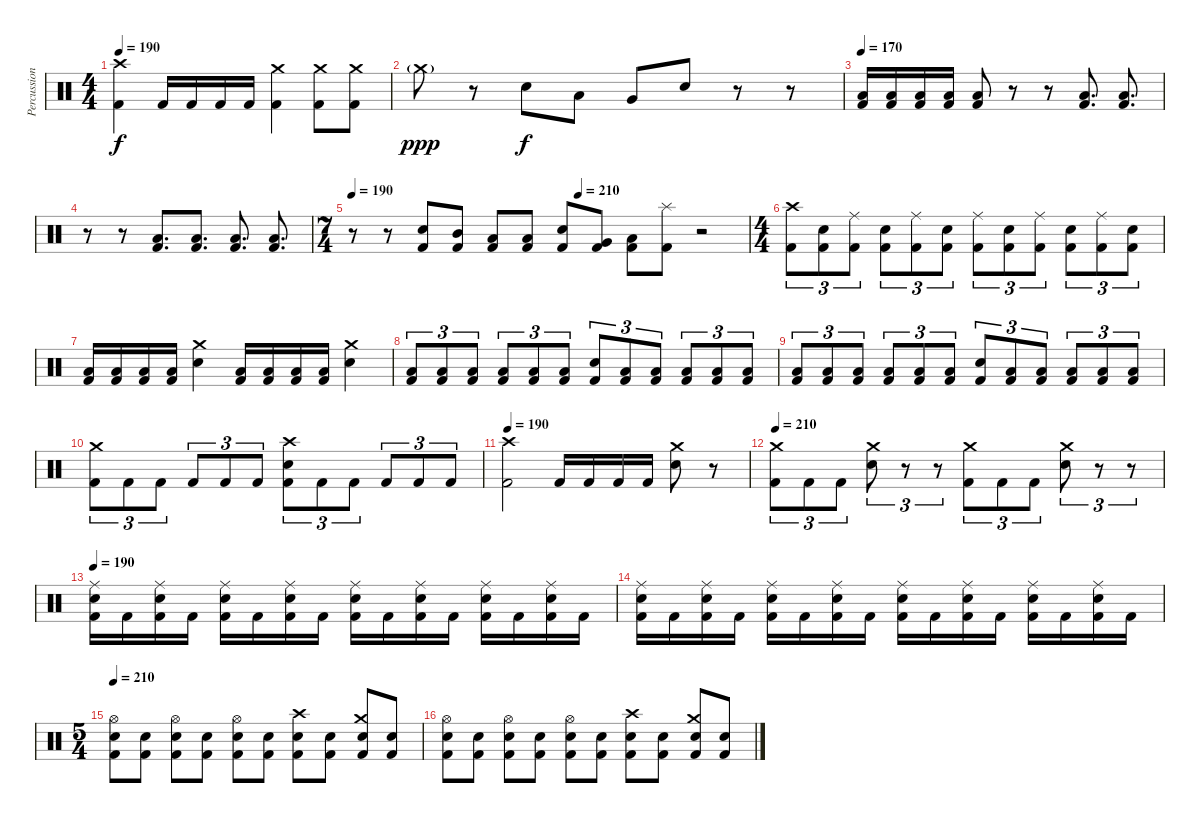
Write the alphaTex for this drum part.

\track ("Percussion" "Percussion") {instrument percussion}
\staff {score}
\articulation defaults
\ts (4 4)
\tempo 190
\clef neutral
\ks c
("Crash high (hit)" "Kick (hit) 2").4{dy f} "Kick (hit) 2".16 "Kick (hit) 2".16 "Kick (hit) 2".16 "Kick (hit) 2".16 ("Crash medium (hit)" "Kick (hit) 2").4 ("Crash medium (hit)" "Kick (hit) 2").8 ("Crash medium (hit)" "Kick (hit) 2").8 |
"Crash medium (hit)"{g}.8{dy ppp} r.8 "Electric Snare (hit)".8{dy f} "Low Tom (hit)".8 "Very Low Tom (hit)".8 "Electric Snare (hit)".8 r.8 r.8 |
\tempo 170
("Low Tom (hit)" "Kick (hit) 2").16 ("Low Tom (hit)" "Kick (hit) 2").16 ("Low Tom (hit)" "Kick (hit) 2").16 ("Low Tom (hit)" "Kick (hit) 2").16 ("Low Tom (hit)" "Kick (hit) 2").8 r.8 r.8 ("Low Tom (hit)" "Kick (hit) 2").8{d} ("Low Tom (hit)" "Kick (hit) 2").8{d} |
r.8 r.8 ("Low Tom (hit)" "Kick (hit) 2").8{d} ("Low Tom (hit)" "Kick (hit) 2").8{d} ("Low Tom (hit)" "Kick (hit) 2").8{d} ("Low Tom (hit)" "Kick (hit) 2").8{d} |
\ts (7 4)
\tempo 190
\tempo (210 0.5714285714285714)
r.8 r.8 ("Electric Snare (hit)" "Kick (hit) 2").8 ("Mid Tom (hit)" "Kick (hit) 2").8 ("Low Tom (hit)" "Kick (hit) 2").8 ("Low Tom (hit)" "Kick (hit) 2").8 ("Electric Snare (hit)" "Kick (hit) 2").8 ("Very Low Tom (hit)" "Kick (hit) 2").8 ("Low Floor Tom (hit)" "Kick (hit) 2").8 ("Splash (hit)" "Kick (hit) 2").8 r.2 |
\ts (4 4)
("Crash high (hit)" "Kick (hit) 2").8{tu (3 2)} ("Electric Snare (hit)" "Kick (hit) 2").8{tu (3 2)} ("Ride (middle)" "Kick (hit) 2").8{tu (3 2)} ("Electric Snare (hit)" "Kick (hit) 2").8{tu (3 2)} ("Ride (middle)" "Kick (hit) 2").8{tu (3 2)} ("Electric Snare (hit)" "Kick (hit) 2").8{tu (3 2)} ("Ride (middle)" "Kick (hit) 2").8{tu (3 2)} ("Electric Snare (hit)" "Kick (hit) 2").8{tu (3 2)} ("Ride (middle)" "Kick (hit) 2").8{tu (3 2)} ("Electric Snare (hit)" "Kick (hit) 2").8{tu (3 2)} ("Ride (middle)" "Kick (hit) 2").8{tu (3 2)} ("Electric Snare (hit)" "Kick (hit) 2").8{tu (3 2)} |
("Low Tom (hit)" "Kick (hit) 2").16 ("Low Tom (hit)" "Kick (hit) 2").16 ("Low Tom (hit)" "Kick (hit) 2").16 ("Low Tom (hit)" "Kick (hit) 2").16 ("Crash medium (hit)" "Electric Snare (hit)").4 ("Low Tom (hit)" "Kick (hit) 2").16 ("Low Tom (hit)" "Kick (hit) 2").16 ("Low Tom (hit)" "Kick (hit) 2").16 ("Low Tom (hit)" "Kick (hit) 2").16 ("Crash medium (hit)" "Electric Snare (hit)").4 |
("Low Floor Tom (hit)" "Kick (hit) 2").8{tu (3 2)} ("Low Floor Tom (hit)" "Kick (hit) 2").8{tu (3 2)} ("Low Floor Tom (hit)" "Kick (hit) 2").8{tu (3 2)} ("Low Floor Tom (hit)" "Kick (hit) 2").8{tu (3 2)} ("Low Floor Tom (hit)" "Kick (hit) 2").8{tu (3 2)} ("Low Floor Tom (hit)" "Kick (hit) 2").8{tu (3 2)} ("Electric Snare (hit)" "Kick (hit) 2").8{tu (3 2)} ("Low Floor Tom (hit)" "Kick (hit) 2").8{tu (3 2)} ("Low Floor Tom (hit)" "Kick (hit) 2").8{tu (3 2)} ("Low Floor Tom (hit)" "Kick (hit) 2").8{tu (3 2)} ("Low Floor Tom (hit)" "Kick (hit) 2").8{tu (3 2)} ("Low Floor Tom (hit)" "Kick (hit) 2").8{tu (3 2)} |
("Low Floor Tom (hit)" "Kick (hit) 2").8{tu (3 2)} ("Low Floor Tom (hit)" "Kick (hit) 2").8{tu (3 2)} ("Low Floor Tom (hit)" "Kick (hit) 2").8{tu (3 2)} ("Low Floor Tom (hit)" "Kick (hit) 2").8{tu (3 2)} ("Low Floor Tom (hit)" "Kick (hit) 2").8{tu (3 2)} ("Low Floor Tom (hit)" "Kick (hit) 2").8{tu (3 2)} ("Electric Snare (hit)" "Kick (hit) 2").8{tu (3 2)} ("Low Floor Tom (hit)" "Kick (hit) 2").8{tu (3 2)} ("Low Floor Tom (hit)" "Kick (hit) 2").8{tu (3 2)} ("Low Floor Tom (hit)" "Kick (hit) 2").8{tu (3 2)} ("Low Floor Tom (hit)" "Kick (hit) 2").8{tu (3 2)} ("Low Floor Tom (hit)" "Kick (hit) 2").8{tu (3 2)} |
("Crash medium (hit)" "Kick (hit) 2").8{tu (3 2)} "Kick (hit) 2".8{tu (3 2)} "Kick (hit) 2".8{tu (3 2)} "Kick (hit) 2".8{tu (3 2)} "Kick (hit) 2".8{tu (3 2)} "Kick (hit) 2".8{tu (3 2)} ("Crash high (hit)" "Electric Snare (hit)" "Kick (hit) 2").8{tu (3 2)} "Kick (hit) 2".8{tu (3 2)} "Kick (hit) 2".8{tu (3 2)} "Kick (hit) 2".8{tu (3 2)} "Kick (hit) 2".8{tu (3 2)} "Kick (hit) 2".8{tu (3 2)} |
\tempo 190
("Crash high (hit)" "Kick (hit) 2").2 "Kick (hit) 2".16 "Kick (hit) 2".16 "Kick (hit) 2".16 "Kick (hit) 2".16 ("Crash medium (hit)" "Electric Snare (hit)").8 r.8 |
\tempo 210
("Crash medium (hit)" "Kick (hit) 2").8{tu (3 2)} "Kick (hit) 2".8{tu (3 2)} "Kick (hit) 2".8{tu (3 2)} ("Crash medium (hit)" "Electric Snare (hit)").8{tu (3 2)} r.8{tu (3 2)} r.8{tu (3 2)} ("Crash medium (hit)" "Kick (hit) 2").8{tu (3 2)} "Kick (hit) 2".8{tu (3 2)} "Kick (hit) 2".8{tu (3 2)} ("Crash medium (hit)" "Electric Snare (hit)").8{tu (3 2)} r.8{tu (3 2)} r.8{tu (3 2)} |
\tempo 190
("Ride (middle)" "Electric Snare (hit)" "Kick (hit) 2").16 "Kick (hit) 2".16 ("Ride (middle)" "Electric Snare (hit)" "Kick (hit) 2").16 "Kick (hit) 2".16 ("Ride (middle)" "Electric Snare (hit)" "Kick (hit) 2").16 "Kick (hit) 2".16 ("Ride (middle)" "Electric Snare (hit)" "Kick (hit) 2").16 "Kick (hit) 2".16 ("Ride (middle)" "Electric Snare (hit)" "Kick (hit) 2").16 "Kick (hit) 2".16 ("Ride (middle)" "Electric Snare (hit)" "Kick (hit) 2").16 "Kick (hit) 2".16 ("Ride (middle)" "Electric Snare (hit)" "Kick (hit) 2").16 "Kick (hit) 2".16 ("Ride (middle)" "Electric Snare (hit)" "Kick (hit) 2").16 "Kick (hit) 2".16 |
("Ride (middle)" "Electric Snare (hit)" "Kick (hit) 2").16 "Kick (hit) 2".16 ("Ride (middle)" "Electric Snare (hit)" "Kick (hit) 2").16 "Kick (hit) 2".16 ("Ride (middle)" "Electric Snare (hit)" "Kick (hit) 2").16 "Kick (hit) 2".16 ("Ride (middle)" "Electric Snare (hit)" "Kick (hit) 2").16 "Kick (hit) 2".16 ("Ride (middle)" "Electric Snare (hit)" "Kick (hit) 2").16 "Kick (hit) 2".16 ("Ride (middle)" "Electric Snare (hit)" "Kick (hit) 2").16 "Kick (hit) 2".16 ("Ride (middle)" "Electric Snare (hit)" "Kick (hit) 2").16 "Kick (hit) 2".16 ("Ride (middle)" "Electric Snare (hit)" "Kick (hit) 2").16 "Kick (hit) 2".16 |
\ts (5 4)
\tempo 210
("Hi-Hat (open)" "Electric Snare (hit)" "Kick (hit) 2").8 ("Electric Snare (hit)" "Kick (hit) 2").8 ("Hi-Hat (open)" "Electric Snare (hit)" "Kick (hit) 2").8 ("Electric Snare (hit)" "Kick (hit) 2").8 ("Hi-Hat (open)" "Electric Snare (hit)" "Kick (hit) 2").8 ("Electric Snare (hit)" "Kick (hit) 2").8 ("Crash high (hit)" "Electric Snare (hit)" "Kick (hit) 2").8 ("Electric Snare (hit)" "Kick (hit) 2").8 ("Crash medium (hit)" "Electric Snare (hit)" "Kick (hit) 2").8 ("Electric Snare (hit)" "Kick (hit) 2").8 |
("Hi-Hat (open)" "Electric Snare (hit)" "Kick (hit) 2").8 ("Electric Snare (hit)" "Kick (hit) 2").8 ("Hi-Hat (open)" "Electric Snare (hit)" "Kick (hit) 2").8 ("Electric Snare (hit)" "Kick (hit) 2").8 ("Hi-Hat (open)" "Electric Snare (hit)" "Kick (hit) 2").8 ("Electric Snare (hit)" "Kick (hit) 2").8 ("Crash high (hit)" "Electric Snare (hit)" "Kick (hit) 2").8 ("Electric Snare (hit)" "Kick (hit) 2").8 ("Crash medium (hit)" "Electric Snare (hit)" "Kick (hit) 2").8 ("Electric Snare (hit)" "Kick (hit) 2").8
